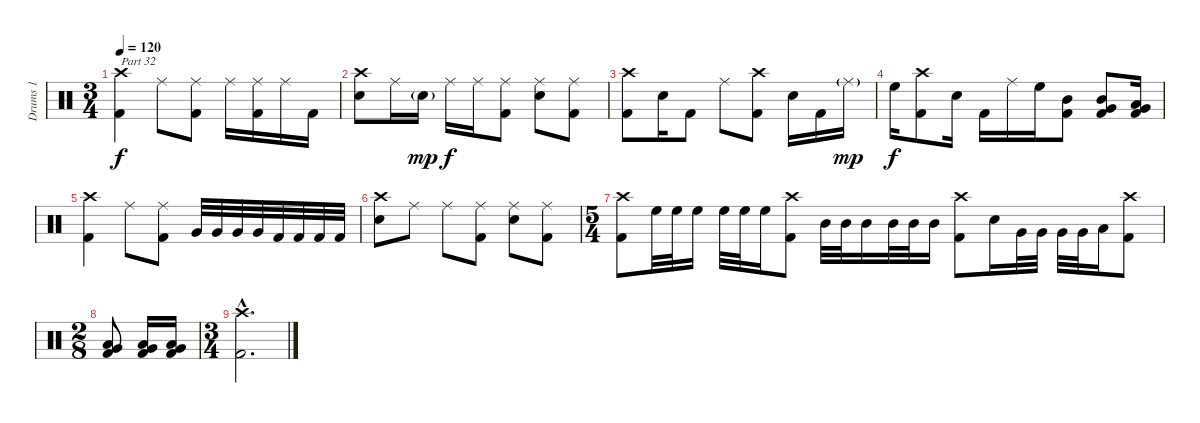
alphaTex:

\track ("Drums 1" "Drums 1") {instrument percussion}
\staff {score}
\articulation defaults
\ts (3 4)
\tempo 120
\clef neutral
\ks c
("Crash high (hit)" "Kick (hit) 2").4{txt "Part 32" dy f} "Ride (middle)".8 ("Ride (middle)" "Kick (hit) 2").8 "Ride (middle)".16 ("Ride (middle)" "Kick (hit) 2").16 "Ride (middle)".16 "Kick (hit) 2".16 |
("Crash high (hit)" "Snare (hit) 2").8 "Ride (middle)".16 "Snare (hit) 2"{g}.16{dy mp} "Ride (middle)".16{dy f} "Ride (middle)".16 ("Ride (middle)" "Kick (hit) 2").8 ("Ride (middle)" "Snare (hit) 2").8 ("Ride (middle)" "Kick (hit) 2").8 |
("Crash high (hit)" "Kick (hit) 2").8 "Snare (hit) 2".16 "Kick (hit) 2".8 "Ride (middle)".8 ("Crash high (hit)" "Kick (hit) 2").8 "Snare (hit) 2".16 "Kick (hit) 2".16 "Ride (middle)"{g}.16{dy mp} |
"High Floor Tom (hit)".16{dy f} ("Crash high (hit)" "Kick (hit) 2").8 "Snare (hit) 2".16 "Kick (hit) 2".16 "Ride (middle)".16 "High Floor Tom (hit)".16 ("Mid Tom (hit)" "Kick (hit) 2").8 ("Mid Tom (hit)" "Very Low Tom (hit)" "Kick (hit) 2").8 ("Kick (hit) 2" "Very Low Tom (hit)" "Low Floor Tom (hit)").16 |
("Crash high (hit)" "Kick (hit) 2").4 "Ride (middle)".8 ("Ride (middle)" "Kick (hit) 2").8 "Very Low Tom (hit)".32 "Very Low Tom (hit)".32 "Very Low Tom (hit)".32 "Very Low Tom (hit)".32 "Kick (hit) 2".32 "Kick (hit) 2".32 "Kick (hit) 2".32 "Kick (hit) 2".32 |
("Crash high (hit)" "Snare (hit) 2").8 "Ride (middle)".8 "Ride (middle)".8 ("Ride (middle)" "Kick (hit) 2").8 ("Ride (middle)" "Snare (hit) 2").8 ("Ride (middle)" "Kick (hit) 2").8 |
\ts (5 4)
("Crash high (hit)" "Kick (hit) 2").8 "High Floor Tom (hit)".32 "High Floor Tom (hit)".32 "High Floor Tom (hit)".16 "High Floor Tom (hit)".32 "High Floor Tom (hit)".32 "High Floor Tom (hit)".16 ("Crash high (hit)" "Kick (hit) 2").8 "Mid Tom (hit)".32 "Mid Tom (hit)".32 "Mid Tom (hit)".16 "Mid Tom (hit)".32 "Mid Tom (hit)".32 "Mid Tom (hit)".16 ("Crash high (hit)" "Kick (hit) 2").8 "Snare (hit) 2".16 "Very Low Tom (hit)".32 "Very Low Tom (hit)".32 "Very Low Tom (hit)".32 "Very Low Tom (hit)".32 "Low Floor Tom (hit)".16 ("Crash high (hit)" "Kick (hit) 2").8 |
\ts (2 8)
("Very Low Tom (hit)" "Low Floor Tom (hit)" "Kick (hit) 2").8 ("Very Low Tom (hit)" "Low Floor Tom (hit)" "Kick (hit) 2").16 ("Very Low Tom (hit)" "Low Floor Tom (hit)" "Kick (hit) 2").16 |
\ts (3 4)
("Crash high (hit)"{hac} "Kick (hit) 2"{hac}).2{d}
